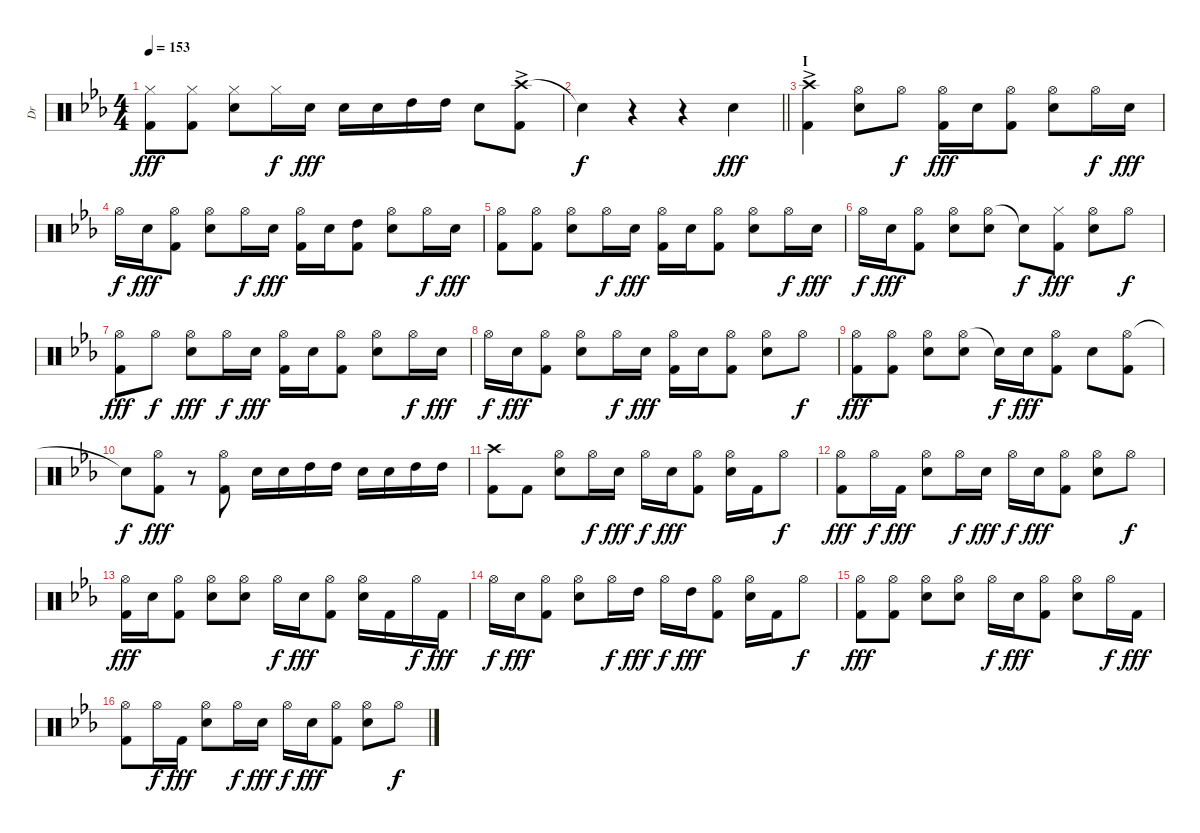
\track ("Dr" "Dr") {instrument percussion}
\staff {score}
\articulation defaults
\ts (4 4)
\tempo 153
\clef neutral
\ks cminor
("Hi-Hat (closed)" "Kick (hit) 2").8{dy fff} ("Hi-Hat (closed)" "Kick (hit) 2").8 ("Hi-Hat (closed)" "Electric Snare (hit)").8 "Hi-Hat (closed)".16{dy f} "Electric Snare (hit)".16{dy fff} "Electric Snare (hit)".16 "Electric Snare (hit)".16 "High Tom (hit)".16 "High Tom (hit)".16 "Electric Snare (hit)".8 ("Crash high (hit)"{ac} "Kick (hit) 2"{ac}).8 |
\barLineRight lightlight "Snare (hit)"{t}.4{dy f}
r.4 r.4 "Electric Snare (hit)".4{dy fff} |
\section ("" "I")
("Crash high (hit)"{ac} "Kick (hit) 2"{ac}).4 ("Hi-Hat (open)" "Electric Snare (hit)").8 "Hi-Hat (open)".8{dy f} ("Hi-Hat (open)" "Kick (hit) 2").16{dy fff} "Electric Snare (hit)".16 ("Hi-Hat (open)" "Kick (hit) 2").8 ("Hi-Hat (open)" "Electric Snare (hit)").8 "Hi-Hat (open)".16{dy f} "Electric Snare (hit)".16{dy fff} |
"Hi-Hat (open)".16{dy f} "Electric Snare (hit)".16{dy fff} ("Hi-Hat (open)" "Kick (hit) 2").8 ("Hi-Hat (open)" "Electric Snare (hit)").8 "Hi-Hat (open)".16{dy f} "Electric Snare (hit)".16{dy fff} ("Hi-Hat (open)" "Kick (hit) 2").16 "Electric Snare (hit)".16 ("High Tom (hit)" "Kick (hit) 2").8 ("Hi-Hat (open)" "Electric Snare (hit)").8 "Hi-Hat (open)".16{dy f} "Electric Snare (hit)".16{dy fff} |
("Hi-Hat (open)" "Kick (hit) 2").8 ("Hi-Hat (open)" "Kick (hit) 2").8 ("Hi-Hat (open)" "Electric Snare (hit)").8 "Hi-Hat (open)".16{dy f} "Electric Snare (hit)".16{dy fff} ("Hi-Hat (open)" "Kick (hit) 2").16 "Electric Snare (hit)".16 ("Hi-Hat (open)" "Kick (hit) 2").8 ("Hi-Hat (open)" "Electric Snare (hit)").8 "Hi-Hat (open)".16{dy f} "Electric Snare (hit)".16{dy fff} |
"Hi-Hat (open)".16{dy f} "Electric Snare (hit)".16{dy fff} ("Hi-Hat (open)" "Kick (hit) 2").8 ("Hi-Hat (open)" "Electric Snare (hit)").8 ("Hi-Hat (open)" "Electric Snare (hit)").8 "Snare (hit)"{t}.8{dy f} ("Hi-Hat (closed)" "Kick (hit) 2").8{dy fff} ("Hi-Hat (open)" "Electric Snare (hit)").8 "Hi-Hat (open)".8{dy f} |
("Hi-Hat (open)" "Kick (hit) 2").8{dy fff} "Hi-Hat (open)".8{dy f} ("Hi-Hat (open)" "Electric Snare (hit)").8{dy fff} "Hi-Hat (open)".16{dy f} "Electric Snare (hit)".16{dy fff} ("Hi-Hat (open)" "Kick (hit) 2").16 "Electric Snare (hit)".16 ("Hi-Hat (open)" "Kick (hit) 2").8 ("Hi-Hat (open)" "Electric Snare (hit)").8 "Hi-Hat (open)".16{dy f} "Electric Snare (hit)".16{dy fff} |
"Hi-Hat (open)".16{dy f} "Electric Snare (hit)".16{dy fff} ("Hi-Hat (open)" "Kick (hit) 2").8 ("Hi-Hat (open)" "Electric Snare (hit)").8 "Hi-Hat (open)".16{dy f} "Electric Snare (hit)".16{dy fff} ("Hi-Hat (open)" "Kick (hit) 2").16 "Electric Snare (hit)".16 ("Hi-Hat (open)" "Kick (hit) 2").8 ("Hi-Hat (open)" "Electric Snare (hit)").8 "Hi-Hat (open)".8{dy f} |
("Hi-Hat (open)" "Kick (hit) 2").8{dy fff} ("Hi-Hat (open)" "Kick (hit) 2").8 ("Hi-Hat (open)" "Electric Snare (hit)").8 ("Hi-Hat (open)" "Electric Snare (hit)").8 "Snare (hit)"{t}.16{dy f} "Electric Snare (hit)".16{dy fff} ("Hi-Hat (open)" "Kick (hit) 2").8 "Electric Snare (hit)".8 ("Hi-Hat (open)" "Kick (hit) 2").8 |
"Snare (hit)"{t}.8{dy f} ("Hi-Hat (open)" "Kick (hit) 2").8{dy fff} r.8 ("Hi-Hat (open)" "Kick (hit) 2").8 "Electric Snare (hit)".16 "Electric Snare (hit)".16 "High Tom (hit)".16 "High Tom (hit)".16 "Electric Snare (hit)".16 "Electric Snare (hit)".16 "High Tom (hit)".16 "High Tom (hit)".16 |
("Crash high (hit)" "Kick (hit) 2").8 "Kick (hit) 2".8 ("Hi-Hat (open)" "Electric Snare (hit)").8 "Hi-Hat (open)".16{dy f} "Electric Snare (hit)".16{dy fff} "Hi-Hat (open)".16{dy f} "Electric Snare (hit)".16{dy fff} ("Hi-Hat (open)" "Kick (hit) 2").8 ("Hi-Hat (open)" "Electric Snare (hit)").16 "Kick (hit) 2".16 "Hi-Hat (open)".8{dy f} |
("Hi-Hat (open)" "Kick (hit) 2").8{dy fff} "Hi-Hat (open)".16{dy f} "Kick (hit) 2".16{dy fff} ("Hi-Hat (open)" "Electric Snare (hit)").8 "Hi-Hat (open)".16{dy f} "Electric Snare (hit)".16{dy fff} "Hi-Hat (open)".16{dy f} "Electric Snare (hit)".16{dy fff} ("Hi-Hat (open)" "Kick (hit) 2").8 ("Hi-Hat (open)" "Electric Snare (hit)").8 "Hi-Hat (open)".8{dy f} |
("Hi-Hat (open)" "Kick (hit) 2").16{dy fff} "Electric Snare (hit)".16 ("Hi-Hat (open)" "Kick (hit) 2").8 ("Hi-Hat (open)" "Electric Snare (hit)").8 ("Hi-Hat (open)" "Electric Snare (hit)").8 "Hi-Hat (open)".16{dy f} "Electric Snare (hit)".16{dy fff} ("Hi-Hat (open)" "Kick (hit) 2").8 ("Hi-Hat (open)" "Electric Snare (hit)").16 "Kick (hit) 2".16 "Hi-Hat (open)".16{dy f} "Kick (hit) 2".16{dy fff} |
"Hi-Hat (open)".16{dy f} "Electric Snare (hit)".16{dy fff} ("Hi-Hat (open)" "Kick (hit) 2").8 ("Hi-Hat (open)" "Electric Snare (hit)").8 "Hi-Hat (open)".16{dy f} "High Tom (hit)".16{dy fff} "Hi-Hat (open)".16{dy f} "High Tom (hit)".16{dy fff} ("Hi-Hat (open)" "Kick (hit) 2").8 ("Hi-Hat (open)" "Electric Snare (hit)").16 "Kick (hit) 2".16 "Hi-Hat (open)".8{dy f} |
("Hi-Hat (open)" "Kick (hit) 2").8{dy fff} ("Hi-Hat (open)" "Kick (hit) 2").8 ("Hi-Hat (open)" "Electric Snare (hit)").8 ("Hi-Hat (open)" "Electric Snare (hit)").8 "Hi-Hat (open)".16{dy f} "Electric Snare (hit)".16{dy fff} ("Hi-Hat (open)" "Kick (hit) 2").8 ("Hi-Hat (open)" "Electric Snare (hit)").8 "Hi-Hat (open)".16{dy f} "Kick (hit) 2".16{dy fff} |
("Hi-Hat (open)" "Kick (hit) 2").8 "Hi-Hat (open)".16{dy f} "Kick (hit) 2".16{dy fff} ("Hi-Hat (open)" "Electric Snare (hit)").8 "Hi-Hat (open)".16{dy f} "Electric Snare (hit)".16{dy fff} "Hi-Hat (open)".16{dy f} "Electric Snare (hit)".16{dy fff} ("Hi-Hat (open)" "Kick (hit) 2").8 ("Hi-Hat (open)" "Electric Snare (hit)").8 "Hi-Hat (open)".8{dy f}
